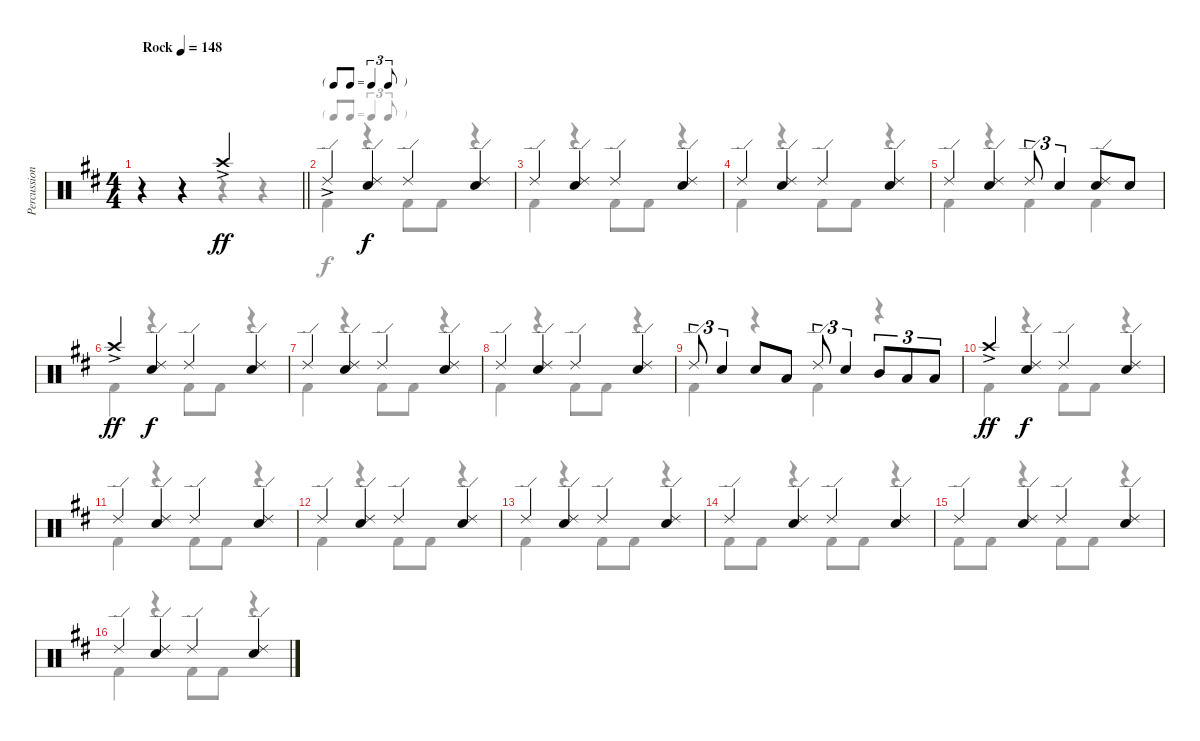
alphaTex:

\track ("Percussion" "Percussion") {instrument percussion}
\staff {score}
\articulation defaults
\voice
\ts (4 4)
\tempo (148 "Rock")
\clef neutral
\barLineRight lightlight
\ks bminor
r.4{dy ff} r.4 "Crash high (hit)"{ac}.2 |
\tf triplet8th "Ride (edge) 2"{ac}.4
("Ride (edge) 2" "Snare (hit) 2").4{dy f} "Ride (edge) 2".4 ("Ride (edge) 2" "Snare (hit) 2").4 |
"Ride (edge) 2".4 ("Ride (edge) 2" "Snare (hit) 2").4 "Ride (edge) 2".4 ("Ride (edge) 2" "Snare (hit) 2").4 |
"Ride (edge) 2".4 ("Ride (edge) 2" "Snare (hit) 2").4 "Ride (edge) 2".4 ("Ride (edge) 2" "Snare (hit) 2").4 |
"Ride (edge) 2".4 ("Ride (edge) 2" "Snare (hit) 2").4 "Ride (edge) 2".8{tu (3 2)} "Snare (hit) 2".4{tu (3 2)} ("Ride (edge) 2" "Snare (hit) 2").8 "Snare (hit) 2".8 |
"Crash high (hit)"{ac}.4{dy ff} ("Ride (edge) 2" "Snare (hit) 2").4{dy f} "Ride (edge) 2".4 ("Ride (edge) 2" "Snare (hit) 2").4 |
"Ride (edge) 2".4 ("Ride (edge) 2" "Snare (hit) 2").4 "Ride (edge) 2".4 ("Ride (edge) 2" "Snare (hit) 2").4 |
"Ride (edge) 2".4 ("Ride (edge) 2" "Snare (hit) 2").4 "Ride (edge) 2".4 ("Ride (edge) 2" "Snare (hit) 2").4 |
"Ride (edge) 2".8{tu (3 2)} "Snare (hit) 2".4{tu (3 2)} "Snare (hit) 2".8 "Low Tom (hit)".8 "Ride (edge) 2".8{tu (3 2)} "Snare (hit) 2".4{tu (3 2)} "Mid Tom (hit)".8{tu (3 2)} "Low Tom (hit)".8{tu (3 2)} "Low Tom (hit)".8{tu (3 2)} |
"Crash high (hit)"{ac}.4{dy ff} ("Ride (edge) 2" "Snare (hit) 2").4{dy f} "Ride (edge) 2".4 ("Ride (edge) 2" "Snare (hit) 2").4 |
"Ride (edge) 2".4 ("Ride (edge) 2" "Snare (hit) 2").4 "Ride (edge) 2".4 ("Ride (edge) 2" "Snare (hit) 2").4 |
"Ride (edge) 2".4 ("Ride (edge) 2" "Snare (hit) 2").4 "Ride (edge) 2".4 ("Ride (edge) 2" "Snare (hit) 2").4 |
"Ride (edge) 2".4 ("Ride (edge) 2" "Snare (hit) 2").4 "Ride (edge) 2".4 ("Ride (edge) 2" "Snare (hit) 2").4 |
"Ride (edge) 2".4 ("Ride (edge) 2" "Snare (hit) 2").4 "Ride (edge) 2".4 ("Ride (edge) 2" "Snare (hit) 2").4 |
"Ride (edge) 2".4 ("Ride (edge) 2" "Snare (hit) 2").4 "Ride (edge) 2".4 ("Ride (edge) 2" "Snare (hit) 2").4 |
"Ride (edge) 2".4 ("Ride (edge) 2" "Snare (hit) 2").4 "Ride (edge) 2".4 ("Ride (edge) 2" "Snare (hit) 2").4
\voice
\clef neutral
\ottava regular
\simile none
\barLineRight lightlight
\ks bminor
r.4{dy f} r.4 r.4 r.4 |
"Kick (hit) 2".4 r.4 "Kick (hit) 2".8 "Kick (hit) 2".8 r.4 |
"Kick (hit) 2".4 r.4 "Kick (hit) 2".8 "Kick (hit) 2".8 r.4 |
"Kick (hit) 2".4 r.4 "Kick (hit) 2".8 "Kick (hit) 2".8 r.4 |
"Kick (hit) 2".4 r.4 "Kick (hit) 2".4 "Kick (hit) 2".4 |
"Kick (hit) 2".4 r.4 "Kick (hit) 2".8 "Kick (hit) 2".8 r.4 |
"Kick (hit) 2".4 r.4 "Kick (hit) 2".8 "Kick (hit) 2".8 r.4 |
"Kick (hit) 2".4 r.4 "Kick (hit) 2".8 "Kick (hit) 2".8 r.4 |
"Kick (hit) 2".4 r.4 "Kick (hit) 2".4 r.4 |
"Kick (hit) 2".4 r.4 "Kick (hit) 2".8 "Kick (hit) 2".8 r.4 |
"Kick (hit) 2".4 r.4 "Kick (hit) 2".8 "Kick (hit) 2".8 r.4 |
"Kick (hit) 2".4 r.4 "Kick (hit) 2".8 "Kick (hit) 2".8 r.4 |
"Kick (hit) 2".4 r.4 "Kick (hit) 2".8 "Kick (hit) 2".8 r.4 |
"Kick (hit) 2".8 "Kick (hit) 2".8 r.4 "Kick (hit) 2".8 "Kick (hit) 2".8 r.4 |
"Kick (hit) 2".8 "Kick (hit) 2".8 r.4 "Kick (hit) 2".8 "Kick (hit) 2".8 r.4 |
"Kick (hit) 2".4 r.4 "Kick (hit) 2".8 "Kick (hit) 2".8 r.4
